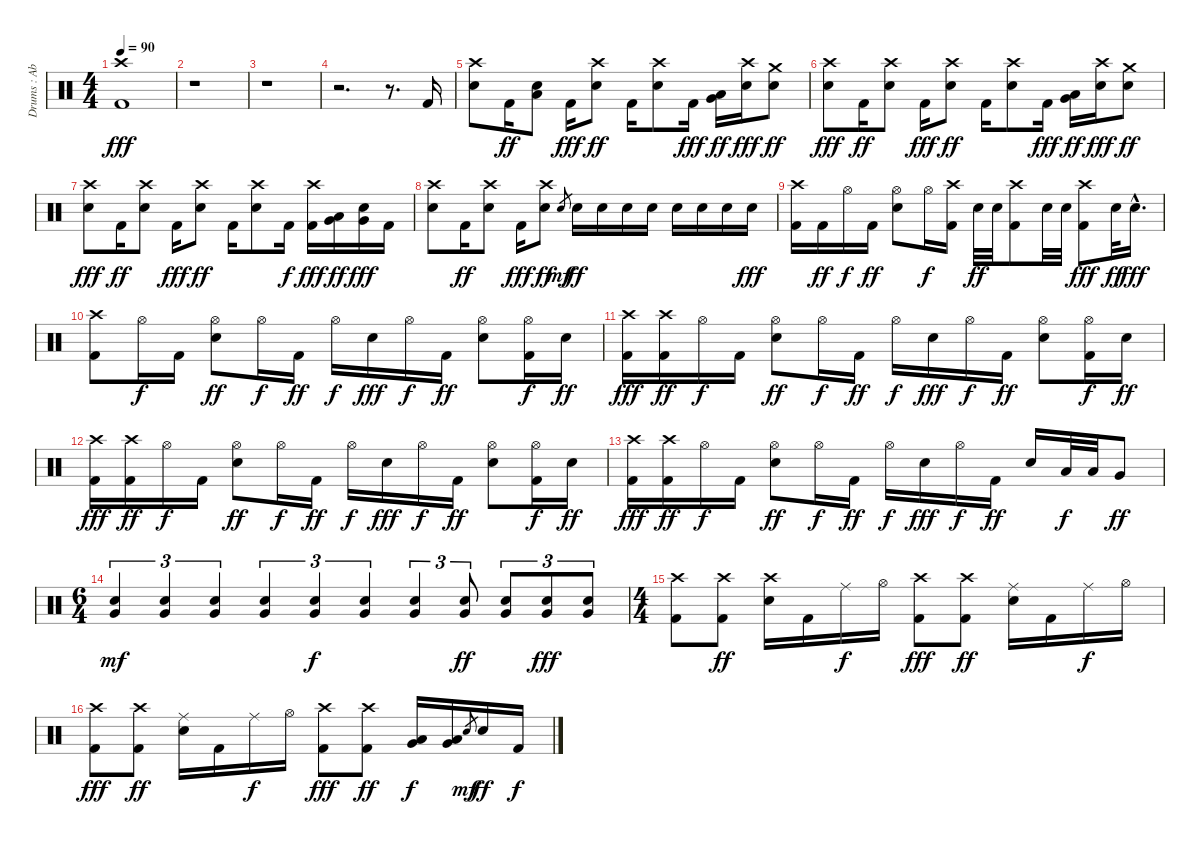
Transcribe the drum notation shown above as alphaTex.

\track ("Drums : Abe Cunnigham" "Drums : Ab") {instrument percussion}
\staff {score}
\articulation defaults
\ts (4 4)
\tempo 90
\clef neutral
\ks c
("Crash high (hit)" "Kick (hit) 2").1{dy fff} |
r.1 |
r.1 |
r.2{d} r.8{d} "Kick (hit) 2".16 |
("Crash high (hit)" "Electric Snare (hit)").8 "Kick (hit) 2".16{dy ff} ("Low Tom (hit)" "Electric Snare (hit)").8 "Kick (hit) 2".16{dy fff} ("Crash high (hit)" "Electric Snare (hit)").8{dy ff} "Kick (hit) 2".16 ("Crash high (hit)" "Electric Snare (hit)").8 "Kick (hit) 2".16{dy fff} ("Low Tom (hit)" "Very Low Tom (hit)").16{dy ff} ("Crash high (hit)" "Electric Snare (hit)").16{dy fff} ("Crash medium (hit)" "Electric Snare (hit)").8{dy ff} |
("Crash high (hit)" "Electric Snare (hit)").8{dy fff} "Kick (hit) 2".16{dy ff} ("Crash high (hit)" "Electric Snare (hit)").8 "Kick (hit) 2".16{dy fff} ("Crash high (hit)" "Electric Snare (hit)").8{dy ff} "Kick (hit) 2".16 ("Crash high (hit)" "Electric Snare (hit)").8 "Kick (hit) 2".16{dy fff} ("Low Tom (hit)" "Very Low Tom (hit)").16{dy ff} ("Crash high (hit)" "Electric Snare (hit)").16{dy fff} ("Crash medium (hit)" "Electric Snare (hit)").8{dy ff} |
("Crash high (hit)" "Electric Snare (hit)").8{dy fff} "Kick (hit) 2".16{dy ff} ("Crash high (hit)" "Electric Snare (hit)").8 "Kick (hit) 2".16{dy fff} ("Crash high (hit)" "Electric Snare (hit)").8{dy ff} "Kick (hit) 2".16 ("Crash high (hit)" "Electric Snare (hit)").8 "Kick (hit) 2".16{dy f} ("Crash high (hit)" "Kick (hit) 2").16{dy fff} ("Low Tom (hit)" "Very Low Tom (hit)").16{dy ff} ("Very Low Tom (hit)" "Electric Snare (hit)").16{dy fff} "Kick (hit) 2".16 |
("Crash high (hit)" "Electric Snare (hit)").8 "Kick (hit) 2".16{dy ff} ("Crash high (hit)" "Electric Snare (hit)").8 "Kick (hit) 2".16{dy fff} ("Crash high (hit)" "Electric Snare (hit)").8{dy ff} "Electric Snare (hit)".8{gr dy mf} "Electric Snare (hit)".16{dy ff} "Electric Snare (hit)".16 "Electric Snare (hit)".16 "Electric Snare (hit)".16 "Electric Snare (hit)".16 "Electric Snare (hit)".16 "Electric Snare (hit)".16 "Electric Snare (hit)".16{dy fff} |
("Crash high (hit)" "Kick (hit) 2").16 "Kick (hit) 2".16{dy ff} "Hi-Hat (open)".16{dy f} "Kick (hit) 2".16{dy ff} ("Hi-Hat (open)" "Electric Snare (hit)").8 "Hi-Hat (open)".16{dy f} ("Crash high (hit)" "Kick (hit) 2").16 "Electric Snare (hit)".32{dy ff} "Electric Snare (hit)".32 ("Crash high (hit)" "Kick (hit) 2").8 "Electric Snare (hit)".32 "Electric Snare (hit)".32 ("Crash high (hit)" "Kick (hit) 2").8{dy fff} "Electric Snare (hit)".32{dy ff} "Electric Snare (hit)"{hac}.16{d dy fff} |
("Crash high (hit)" "Kick (hit) 2").8 "Hi-Hat (open)".16{dy f} "Kick (hit) 2".16 ("Hi-Hat (open)" "Electric Snare (hit)").8{dy ff} "Hi-Hat (open)".16{dy f} "Kick (hit) 2".16{dy ff} "Hi-Hat (open)".16{dy f} "Electric Snare (hit)".16{dy fff} "Hi-Hat (open)".16{dy f} "Kick (hit) 2".16{dy ff} ("Hi-Hat (open)" "Electric Snare (hit)").8 ("Hi-Hat (open)" "Kick (hit) 2").16{dy f} "Electric Snare (hit)".16{dy ff} |
("Crash high (hit)" "Kick (hit) 2").16{dy fff} ("Crash high (hit)" "Kick (hit) 2").16{dy ff} "Hi-Hat (open)".16{dy f} "Kick (hit) 2".16 ("Hi-Hat (open)" "Electric Snare (hit)").8{dy ff} "Hi-Hat (open)".16{dy f} "Kick (hit) 2".16{dy ff} "Hi-Hat (open)".16{dy f} "Electric Snare (hit)".16{dy fff} "Hi-Hat (open)".16{dy f} "Kick (hit) 2".16{dy ff} ("Hi-Hat (open)" "Electric Snare (hit)").8 ("Hi-Hat (open)" "Kick (hit) 2").16{dy f} "Electric Snare (hit)".16{dy ff} |
("Crash high (hit)" "Kick (hit) 2").16{dy fff} ("Crash high (hit)" "Kick (hit) 2").16{dy ff} "Hi-Hat (open)".16{dy f} "Kick (hit) 2".16 ("Hi-Hat (open)" "Electric Snare (hit)").8{dy ff} "Hi-Hat (open)".16{dy f} "Kick (hit) 2".16{dy ff} "Hi-Hat (open)".16{dy f} "Electric Snare (hit)".16{dy fff} "Hi-Hat (open)".16{dy f} "Kick (hit) 2".16{dy ff} ("Hi-Hat (open)" "Electric Snare (hit)").8 ("Hi-Hat (open)" "Kick (hit) 2").16{dy f} "Electric Snare (hit)".16{dy ff} |
("Crash high (hit)" "Kick (hit) 2").16{dy fff} ("Crash high (hit)" "Kick (hit) 2").16{dy ff} "Hi-Hat (open)".16{dy f} "Kick (hit) 2".16 ("Hi-Hat (open)" "Electric Snare (hit)").8{dy ff} "Hi-Hat (open)".16{dy f} "Kick (hit) 2".16{dy ff} "Hi-Hat (open)".16{dy f} "Electric Snare (hit)".16{dy fff} "Hi-Hat (open)".16{dy f} "Kick (hit) 2".16{dy ff} "Electric Snare (hit)".16 "Low Tom (hit)".32{dy f} "Low Tom (hit)".32 "Very Low Tom (hit)".8{dy ff} |
\ts (6 4)
("Very Low Tom (hit)" "Electric Snare (hit)").4{tu (3 2) dy mf} ("Very Low Tom (hit)" "Electric Snare (hit)").4{tu (3 2)} ("Very Low Tom (hit)" "Electric Snare (hit)").4{tu (3 2)} ("Very Low Tom (hit)" "Electric Snare (hit)").4{tu (3 2)} ("Very Low Tom (hit)" "Electric Snare (hit)").4{tu (3 2) dy f} ("Very Low Tom (hit)" "Electric Snare (hit)").4{tu (3 2)} ("Very Low Tom (hit)" "Electric Snare (hit)").4{tu (3 2)} ("Very Low Tom (hit)" "Electric Snare (hit)").8{tu (3 2) dy ff} ("Very Low Tom (hit)" "Electric Snare (hit)").8{tu (3 2)} ("Very Low Tom (hit)" "Electric Snare (hit)").8{tu (3 2) dy fff} ("Very Low Tom (hit)" "Electric Snare (hit)").8{tu (3 2)} |
\ts (4 4)
("Crash high (hit)" "Kick (hit) 2").8 ("Crash high (hit)" "Kick (hit) 2").8{dy ff} ("Crash high (hit)" "Electric Snare (hit)").16 "Kick (hit) 2".16 "Ride (middle)".16{dy f} "Hi-Hat (open)".16 ("Crash high (hit)" "Kick (hit) 2").8{dy fff} ("Crash high (hit)" "Kick (hit) 2").8{dy ff} ("Ride (middle)" "Electric Snare (hit)").16 "Kick (hit) 2".16 "Ride (middle)".16{dy f} "Hi-Hat (open)".16 |
("Crash high (hit)" "Kick (hit) 2").8{dy fff} ("Crash high (hit)" "Kick (hit) 2").8{dy ff} ("Ride (middle)" "Electric Snare (hit)").16 "Kick (hit) 2".16 "Ride (middle)".16{dy f} "Hi-Hat (open)".16 ("Crash high (hit)" "Kick (hit) 2").8{dy fff} ("Crash high (hit)" "Kick (hit) 2").8{dy ff} ("Low Tom (hit)" "Very Low Tom (hit)").16{dy f} ("Low Tom (hit)" "Very Low Tom (hit)").16 "Electric Snare (hit)".8{gr dy mf} "Electric Snare (hit)".16{dy ff} "Kick (hit) 2".16{dy f}
